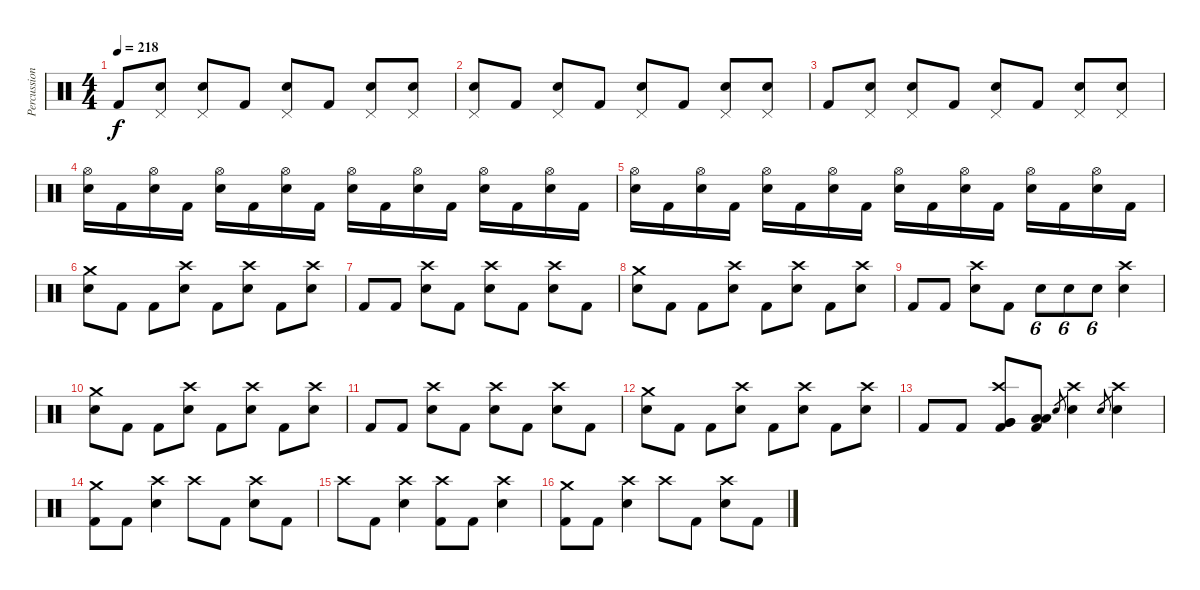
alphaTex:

\track ("Percussions" "Percussion") {instrument percussion}
\staff {score}
\articulation defaults
\ts (4 4)
\tempo 218
\clef neutral
\ks c "Kick (hit) 2".8{dy f}
("Pedal Hi-Hat (hit)" "Electric Snare (hit)").8 ("Pedal Hi-Hat (hit)" "Electric Snare (hit)").8 "Kick (hit) 2".8 ("Pedal Hi-Hat (hit)" "Electric Snare (hit)").8 "Kick (hit) 2".8 ("Pedal Hi-Hat (hit)" "Electric Snare (hit)").8 ("Pedal Hi-Hat (hit)" "Electric Snare (hit)").8 |
("Pedal Hi-Hat (hit)" "Electric Snare (hit)").8 "Kick (hit) 2".8 ("Pedal Hi-Hat (hit)" "Electric Snare (hit)").8 "Kick (hit) 2".8 ("Pedal Hi-Hat (hit)" "Electric Snare (hit)").8 "Kick (hit) 2".8 ("Pedal Hi-Hat (hit)" "Electric Snare (hit)").8 ("Pedal Hi-Hat (hit)" "Electric Snare (hit)").8 |
"Kick (hit) 2".8 ("Pedal Hi-Hat (hit)" "Electric Snare (hit)").8 ("Pedal Hi-Hat (hit)" "Electric Snare (hit)").8 "Kick (hit) 2".8 ("Pedal Hi-Hat (hit)" "Electric Snare (hit)").8 "Kick (hit) 2".8 ("Pedal Hi-Hat (hit)" "Electric Snare (hit)").8 ("Pedal Hi-Hat (hit)" "Electric Snare (hit)").8 |
("Hi-Hat (open)" "Electric Snare (hit)").16 "Kick (hit) 2".16 ("Hi-Hat (open)" "Electric Snare (hit)").16 "Kick (hit) 2".16 ("Hi-Hat (open)" "Electric Snare (hit)").16 "Kick (hit) 2".16 ("Hi-Hat (open)" "Electric Snare (hit)").16 "Kick (hit) 2".16 ("Hi-Hat (open)" "Electric Snare (hit)").16 "Kick (hit) 2".16 ("Hi-Hat (open)" "Electric Snare (hit)").16 "Kick (hit) 2".16 ("Hi-Hat (open)" "Electric Snare (hit)").16 "Kick (hit) 2".16 ("Hi-Hat (open)" "Electric Snare (hit)").16 "Kick (hit) 2".16 |
("Hi-Hat (open)" "Electric Snare (hit)").16 "Kick (hit) 2".16 ("Hi-Hat (open)" "Electric Snare (hit)").16 "Kick (hit) 2".16 ("Hi-Hat (open)" "Electric Snare (hit)").16 "Kick (hit) 2".16 ("Hi-Hat (open)" "Electric Snare (hit)").16 "Kick (hit) 2".16 ("Hi-Hat (open)" "Electric Snare (hit)").16 "Kick (hit) 2".16 ("Hi-Hat (open)" "Electric Snare (hit)").16 "Kick (hit) 2".16 ("Hi-Hat (open)" "Electric Snare (hit)").16 "Kick (hit) 2".16 ("Hi-Hat (open)" "Electric Snare (hit)").16 "Kick (hit) 2".16 |
("Crash medium (hit)" "Electric Snare (hit)").8 "Kick (hit) 2".8 "Kick (hit) 2".8 ("Crash high (hit)" "Electric Snare (hit)").8 "Kick (hit) 2".8 ("Crash high (hit)" "Electric Snare (hit)").8 "Kick (hit) 2".8 ("Crash high (hit)" "Electric Snare (hit)").8 |
"Kick (hit) 2".8 "Kick (hit) 2".8 ("Crash high (hit)" "Electric Snare (hit)").8 "Kick (hit) 2".8 ("Crash high (hit)" "Electric Snare (hit)").8 "Kick (hit) 2".8 ("Crash high (hit)" "Electric Snare (hit)").8 "Kick (hit) 2".8 |
("Crash medium (hit)" "Electric Snare (hit)").8 "Kick (hit) 2".8 "Kick (hit) 2".8 ("Crash high (hit)" "Electric Snare (hit)").8 "Kick (hit) 2".8 ("Crash high (hit)" "Electric Snare (hit)").8 "Kick (hit) 2".8 ("Crash high (hit)" "Electric Snare (hit)").8 |
"Kick (hit) 2".8 "Kick (hit) 2".8 ("Crash high (hit)" "Electric Snare (hit)").8 "Kick (hit) 2".8 "Electric Snare (hit)".8{tu (6 4)} "Electric Snare (hit)".8{tu (6 4)} "Electric Snare (hit)".8{tu (6 4)} ("Crash high (hit)" "Electric Snare (hit)").4 |
("Crash medium (hit)" "Electric Snare (hit)").8 "Kick (hit) 2".8 "Kick (hit) 2".8 ("Crash high (hit)" "Electric Snare (hit)").8 "Kick (hit) 2".8 ("Crash high (hit)" "Electric Snare (hit)").8 "Kick (hit) 2".8 ("Crash high (hit)" "Electric Snare (hit)").8 |
"Kick (hit) 2".8 "Kick (hit) 2".8 ("Crash high (hit)" "Electric Snare (hit)").8 "Kick (hit) 2".8 ("Crash high (hit)" "Electric Snare (hit)").8 "Kick (hit) 2".8 ("Crash high (hit)" "Electric Snare (hit)").8 "Kick (hit) 2".8 |
("Crash medium (hit)" "Electric Snare (hit)").8 "Kick (hit) 2".8 "Kick (hit) 2".8 ("Crash high (hit)" "Electric Snare (hit)").8 "Kick (hit) 2".8 ("Crash high (hit)" "Electric Snare (hit)").8 "Kick (hit) 2".8 ("Crash high (hit)" "Electric Snare (hit)").8 |
"Kick (hit) 2".8 "Kick (hit) 2".8 ("Crash high (hit)" "Very Low Tom (hit)" "Very Low Tom (hit)" "Kick (hit) 2").8 ("Low Floor Tom (hit)" "Low Floor Tom (hit)" "Kick (hit) 2").8 "Electric Snare (hit)".8{gr} ("Crash high (hit)" "Electric Snare (hit)").4 "Electric Snare (hit)".8{gr} ("Crash high (hit)" "Electric Snare (hit)").4 |
("Crash medium (hit)" "Kick (hit) 2").8 "Kick (hit) 2".8 ("Crash high (hit)" "Electric Snare (hit)").4 "Crash high (hit)".8 "Kick (hit) 2".8 ("Crash high (hit)" "Electric Snare (hit)").8 "Kick (hit) 2".8 |
"Crash high (hit)".8 "Kick (hit) 2".8 ("Crash high (hit)" "Electric Snare (hit)").4 ("Crash high (hit)" "Kick (hit) 2").8 "Kick (hit) 2".8 ("Crash high (hit)" "Electric Snare (hit)").4 |
("Crash medium (hit)" "Kick (hit) 2").8 "Kick (hit) 2".8 ("Crash high (hit)" "Electric Snare (hit)").4 "Crash high (hit)".8 "Kick (hit) 2".8 ("Crash high (hit)" "Electric Snare (hit)").8 "Kick (hit) 2".8
